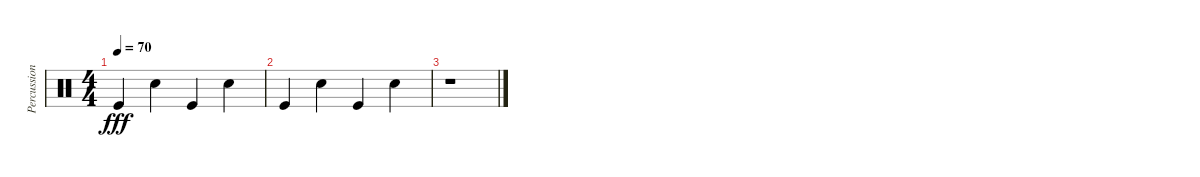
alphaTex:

\track ("Percussions" "Percussion") {instrument percussion}
\staff {score}
\articulation defaults
\ts (4 4)
\tempo 70
\clef neutral
\ks c "Kick (hit)".4{dy fff} "Electric Snare (hit)".4 "Kick (hit)".4 "Electric Snare (hit)".4
|
"Kick (hit)".4 "Electric Snare (hit)".4 "Kick (hit)".4 "Electric Snare (hit)".4 |
r.1
